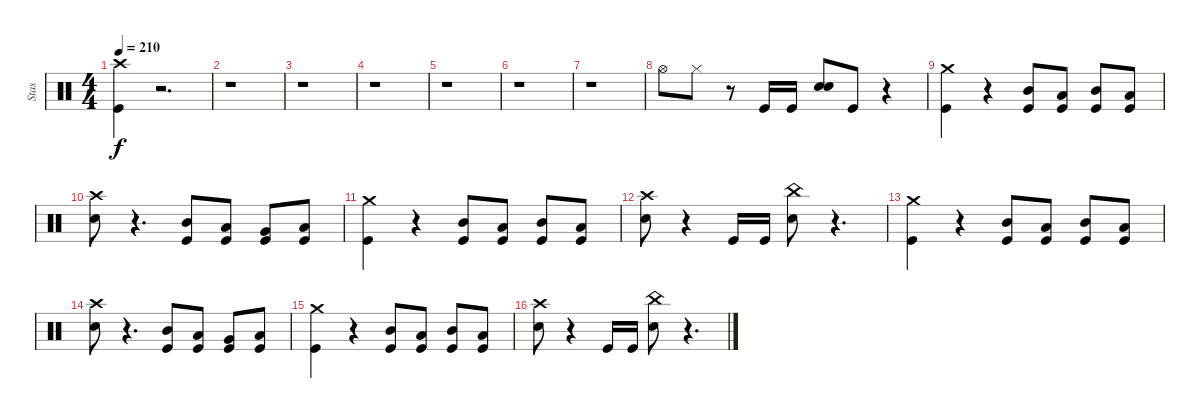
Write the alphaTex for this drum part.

\track ("Stas" "Stas") {instrument percussion}
\staff {score}
\articulation defaults
\ts (4 4)
\tempo 210
\clef neutral
\ks c
("Crash high (hit)" "Kick (hit)").4{dy f} r.2{d} |
r.1 |
r.1 |
r.1 |
r.1 |
r.1 |
r.1 |
"Hi-Hat (open)".8 "Hi-Hat (closed)".8 r.8 "Kick (hit)".16 "Kick (hit)".16 ("Electric Snare (hit)" "Electric Snare (hit)").8 "Kick (hit)".8 r.4 |
("Crash medium (hit)" "Kick (hit)").4 r.4 ("Mid Tom (hit)" "Kick (hit)").8 ("Low Tom (hit)" "Kick (hit)").8 ("Mid Tom (hit)" "Kick (hit)").8 ("Low Tom (hit)" "Kick (hit)").8 |
("Crash high (hit)" "Electric Snare (hit)").8 r.4{d} ("Mid Tom (hit)" "Kick (hit)").8 ("Low Tom (hit)" "Kick (hit)").8 ("Very Low Tom (hit)" "Kick (hit)").8 ("Low Tom (hit)" "Kick (hit)").8 |
("Crash medium (hit)" "Kick (hit)").4 r.4 ("Mid Tom (hit)" "Kick (hit)").8 ("Low Tom (hit)" "Kick (hit)").8 ("Mid Tom (hit)" "Kick (hit)").8 ("Low Tom (hit)" "Kick (hit)").8 |
("Crash high (hit)" "Electric Snare (hit)").8 r.4 "Kick (hit)".16 "Kick (hit)".16 ("Electric Snare (hit)" "China (hit)").8 r.4{d} |
("Crash medium (hit)" "Kick (hit)").4 r.4 ("Mid Tom (hit)" "Kick (hit)").8 ("Low Tom (hit)" "Kick (hit)").8 ("Mid Tom (hit)" "Kick (hit)").8 ("Low Tom (hit)" "Kick (hit)").8 |
("Crash high (hit)" "Electric Snare (hit)").8 r.4{d} ("Mid Tom (hit)" "Kick (hit)").8 ("Low Tom (hit)" "Kick (hit)").8 ("Very Low Tom (hit)" "Kick (hit)").8 ("Low Tom (hit)" "Kick (hit)").8 |
("Crash medium (hit)" "Kick (hit)").4 r.4 ("Mid Tom (hit)" "Kick (hit)").8 ("Low Tom (hit)" "Kick (hit)").8 ("Mid Tom (hit)" "Kick (hit)").8 ("Low Tom (hit)" "Kick (hit)").8 |
("Crash high (hit)" "Electric Snare (hit)").8 r.4 "Kick (hit)".16 "Kick (hit)".16 ("Electric Snare (hit)" "China (hit)").8 r.4{d}
